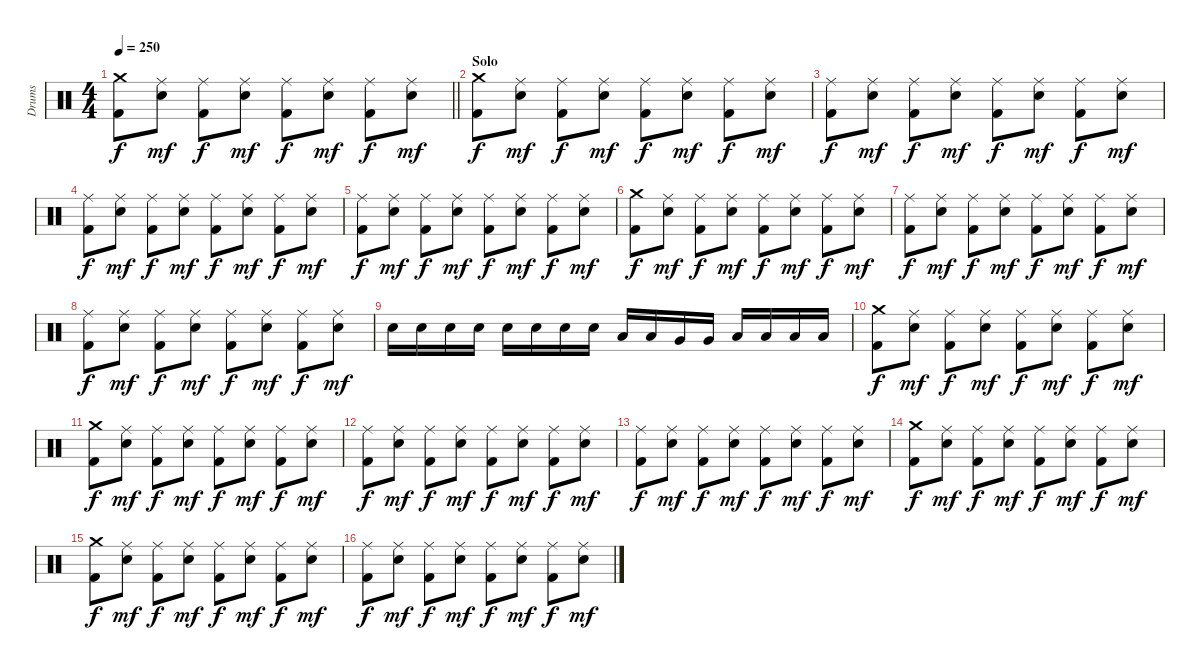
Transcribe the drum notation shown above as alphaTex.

\track ("Drums" "Drums") {instrument percussion}
\staff {score}
\articulation defaults
\ts (4 4)
\tempo 250
\clef neutral
\barLineRight lightlight
\ks c
("Crash medium (hit)" "Kick (hit) 2").8{dy f} ("Ride (middle)" "Snare (hit) 2").8{dy mf} ("Ride (middle)" "Kick (hit) 2").8{dy f} ("Ride (middle)" "Snare (hit) 2").8{dy mf} ("Ride (middle)" "Kick (hit) 2").8{dy f} ("Ride (middle)" "Snare (hit) 2").8{dy mf} ("Ride (middle)" "Kick (hit) 2").8{dy f} ("Ride (middle)" "Snare (hit) 2").8{dy mf} |
\section ("" "Solo")
("Crash medium (hit)" "Kick (hit) 2").8{dy f} ("Ride (middle)" "Snare (hit) 2").8{dy mf} ("Ride (middle)" "Kick (hit) 2").8{dy f} ("Ride (middle)" "Snare (hit) 2").8{dy mf} ("Ride (middle)" "Kick (hit) 2").8{dy f} ("Ride (middle)" "Snare (hit) 2").8{dy mf} ("Ride (middle)" "Kick (hit) 2").8{dy f} ("Ride (middle)" "Snare (hit) 2").8{dy mf} |
("Ride (middle)" "Kick (hit) 2").8{dy f} ("Ride (middle)" "Snare (hit) 2").8{dy mf} ("Ride (middle)" "Kick (hit) 2").8{dy f} ("Ride (middle)" "Snare (hit) 2").8{dy mf} ("Ride (middle)" "Kick (hit) 2").8{dy f} ("Ride (middle)" "Snare (hit) 2").8{dy mf} ("Ride (middle)" "Kick (hit) 2").8{dy f} ("Ride (middle)" "Snare (hit) 2").8{dy mf} |
("Ride (middle)" "Kick (hit) 2").8{dy f} ("Ride (middle)" "Snare (hit) 2").8{dy mf} ("Ride (middle)" "Kick (hit) 2").8{dy f} ("Ride (middle)" "Snare (hit) 2").8{dy mf} ("Ride (middle)" "Kick (hit) 2").8{dy f} ("Ride (middle)" "Snare (hit) 2").8{dy mf} ("Ride (middle)" "Kick (hit) 2").8{dy f} ("Ride (middle)" "Snare (hit) 2").8{dy mf} |
("Ride (middle)" "Kick (hit) 2").8{dy f} ("Ride (middle)" "Snare (hit) 2").8{dy mf} ("Ride (middle)" "Kick (hit) 2").8{dy f} ("Ride (middle)" "Snare (hit) 2").8{dy mf} ("Ride (middle)" "Kick (hit) 2").8{dy f} ("Ride (middle)" "Snare (hit) 2").8{dy mf} ("Ride (middle)" "Kick (hit) 2").8{dy f} ("Ride (middle)" "Snare (hit) 2").8{dy mf} |
("Crash medium (hit)" "Kick (hit) 2").8{dy f} ("Ride (middle)" "Snare (hit) 2").8{dy mf} ("Ride (middle)" "Kick (hit) 2").8{dy f} ("Ride (middle)" "Snare (hit) 2").8{dy mf} ("Ride (middle)" "Kick (hit) 2").8{dy f} ("Ride (middle)" "Snare (hit) 2").8{dy mf} ("Ride (middle)" "Kick (hit) 2").8{dy f} ("Ride (middle)" "Snare (hit) 2").8{dy mf} |
("Ride (middle)" "Kick (hit) 2").8{dy f} ("Ride (middle)" "Snare (hit) 2").8{dy mf} ("Ride (middle)" "Kick (hit) 2").8{dy f} ("Ride (middle)" "Snare (hit) 2").8{dy mf} ("Ride (middle)" "Kick (hit) 2").8{dy f} ("Ride (middle)" "Snare (hit) 2").8{dy mf} ("Ride (middle)" "Kick (hit) 2").8{dy f} ("Ride (middle)" "Snare (hit) 2").8{dy mf} |
("Ride (middle)" "Kick (hit) 2").8{dy f} ("Ride (middle)" "Snare (hit) 2").8{dy mf} ("Ride (middle)" "Kick (hit) 2").8{dy f} ("Ride (middle)" "Snare (hit) 2").8{dy mf} ("Ride (middle)" "Kick (hit) 2").8{dy f} ("Ride (middle)" "Snare (hit) 2").8{dy mf} ("Ride (middle)" "Kick (hit) 2").8{dy f} ("Ride (middle)" "Snare (hit) 2").8{dy mf} |
"Snare (hit) 2".16 "Snare (hit) 2".16 "Snare (hit) 2".16 "Snare (hit) 2".16 "Snare (hit) 2".16 "Snare (hit) 2".16 "Snare (hit) 2".16 "Snare (hit) 2".16 "Low Tom (hit)".16 "Low Tom (hit)".16 "Very Low Tom (hit)".16 "Very Low Tom (hit)".16 "Low Floor Tom (hit)".16 "Low Floor Tom (hit)".16 "Low Floor Tom (hit)".16 "Low Floor Tom (hit)".16 |
("Crash medium (hit)" "Kick (hit) 2").8{dy f} ("Ride (middle)" "Snare (hit) 2").8{dy mf} ("Ride (middle)" "Kick (hit) 2").8{dy f} ("Ride (middle)" "Snare (hit) 2").8{dy mf} ("Ride (middle)" "Kick (hit) 2").8{dy f} ("Ride (middle)" "Snare (hit) 2").8{dy mf} ("Ride (middle)" "Kick (hit) 2").8{dy f} ("Ride (middle)" "Snare (hit) 2").8{dy mf} |
("Crash medium (hit)" "Kick (hit) 2").8{dy f} ("Ride (middle)" "Snare (hit) 2").8{dy mf} ("Ride (middle)" "Kick (hit) 2").8{dy f} ("Ride (middle)" "Snare (hit) 2").8{dy mf} ("Ride (middle)" "Kick (hit) 2").8{dy f} ("Ride (middle)" "Snare (hit) 2").8{dy mf} ("Ride (middle)" "Kick (hit) 2").8{dy f} ("Ride (middle)" "Snare (hit) 2").8{dy mf} |
("Ride (middle)" "Kick (hit) 2").8{dy f} ("Ride (middle)" "Snare (hit) 2").8{dy mf} ("Ride (middle)" "Kick (hit) 2").8{dy f} ("Ride (middle)" "Snare (hit) 2").8{dy mf} ("Ride (middle)" "Kick (hit) 2").8{dy f} ("Ride (middle)" "Snare (hit) 2").8{dy mf} ("Ride (middle)" "Kick (hit) 2").8{dy f} ("Ride (middle)" "Snare (hit) 2").8{dy mf} |
("Ride (middle)" "Kick (hit) 2").8{dy f} ("Ride (middle)" "Snare (hit) 2").8{dy mf} ("Ride (middle)" "Kick (hit) 2").8{dy f} ("Ride (middle)" "Snare (hit) 2").8{dy mf} ("Ride (middle)" "Kick (hit) 2").8{dy f} ("Ride (middle)" "Snare (hit) 2").8{dy mf} ("Ride (middle)" "Kick (hit) 2").8{dy f} ("Ride (middle)" "Snare (hit) 2").8{dy mf} |
("Crash medium (hit)" "Kick (hit) 2").8{dy f} ("Ride (middle)" "Snare (hit) 2").8{dy mf} ("Ride (middle)" "Kick (hit) 2").8{dy f} ("Ride (middle)" "Snare (hit) 2").8{dy mf} ("Ride (middle)" "Kick (hit) 2").8{dy f} ("Ride (middle)" "Snare (hit) 2").8{dy mf} ("Ride (middle)" "Kick (hit) 2").8{dy f} ("Ride (middle)" "Snare (hit) 2").8{dy mf} |
("Crash medium (hit)" "Kick (hit) 2").8{dy f} ("Ride (middle)" "Snare (hit) 2").8{dy mf} ("Ride (middle)" "Kick (hit) 2").8{dy f} ("Ride (middle)" "Snare (hit) 2").8{dy mf} ("Ride (middle)" "Kick (hit) 2").8{dy f} ("Ride (middle)" "Snare (hit) 2").8{dy mf} ("Ride (middle)" "Kick (hit) 2").8{dy f} ("Ride (middle)" "Snare (hit) 2").8{dy mf} |
("Ride (middle)" "Kick (hit) 2").8{dy f} ("Ride (middle)" "Snare (hit) 2").8{dy mf} ("Ride (middle)" "Kick (hit) 2").8{dy f} ("Ride (middle)" "Snare (hit) 2").8{dy mf} ("Ride (middle)" "Kick (hit) 2").8{dy f} ("Ride (middle)" "Snare (hit) 2").8{dy mf} ("Ride (middle)" "Kick (hit) 2").8{dy f} ("Ride (middle)" "Snare (hit) 2").8{dy mf}
